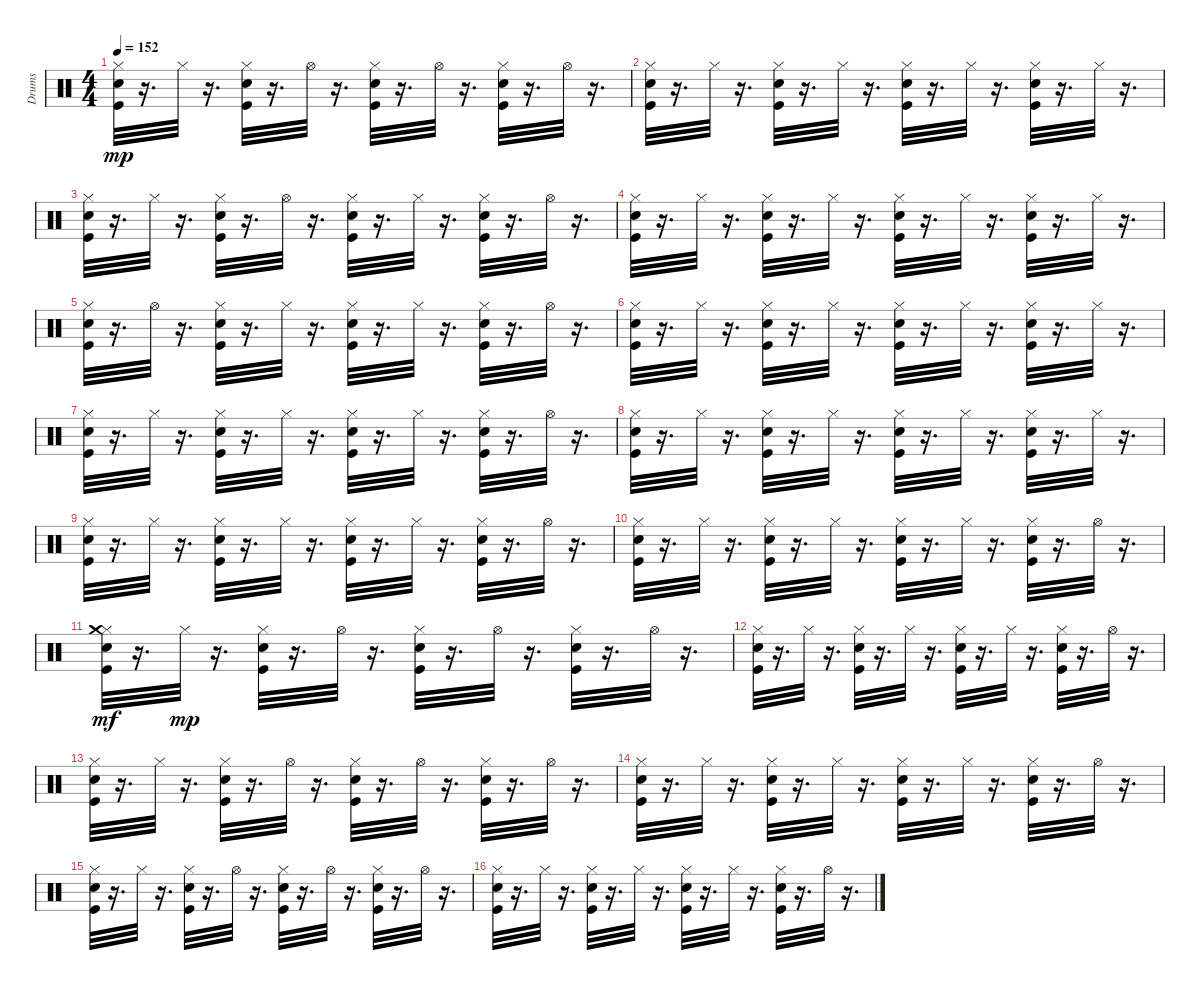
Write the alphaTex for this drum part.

\track ("Drums   " "Drums   ") {instrument percussion}
\staff {score}
\articulation defaults
\ts (4 4)
\tempo 152
\clef neutral
\ks c
("Snare (hit) 2" "Hi-Hat (closed)" "Kick (hit)").32{dy mp} r.16{d} "Hi-Hat (closed)".32 r.16{d} ("Snare (hit) 2" "Hi-Hat (closed)" "Kick (hit)").32 r.16{d} "Hi-Hat (open)".32 r.16{d} ("Snare (hit) 2" "Hi-Hat (closed)" "Kick (hit)").32 r.16{d} "Hi-Hat (open)".32 r.16{d} ("Snare (hit) 2" "Hi-Hat (closed)" "Kick (hit)").32 r.16{d} "Hi-Hat (open)".32 r.16{d} |
("Snare (hit) 2" "Hi-Hat (closed)" "Kick (hit)").32 r.16{d} "Hi-Hat (closed)".32 r.16{d} ("Snare (hit) 2" "Hi-Hat (closed)" "Kick (hit)").32 r.16{d} "Hi-Hat (closed)".32 r.16{d} ("Snare (hit) 2" "Hi-Hat (closed)" "Kick (hit)").32 r.16{d} "Hi-Hat (closed)".32 r.16{d} ("Snare (hit) 2" "Hi-Hat (closed)" "Kick (hit)").32 r.16{d} "Hi-Hat (closed)".32 r.16{d} |
("Snare (hit) 2" "Hi-Hat (closed)" "Kick (hit)").32 r.16{d} "Hi-Hat (closed)".32 r.16{d} ("Snare (hit) 2" "Hi-Hat (closed)" "Kick (hit)").32 r.16{d} "Hi-Hat (open)".32 r.16{d} ("Snare (hit) 2" "Hi-Hat (closed)" "Kick (hit)").32 r.16{d} "Hi-Hat (closed)".32 r.16{d} ("Snare (hit) 2" "Hi-Hat (closed)" "Kick (hit)").32 r.16{d} "Hi-Hat (open)".32 r.16{d} |
("Snare (hit) 2" "Hi-Hat (closed)" "Kick (hit)").32 r.16{d} "Hi-Hat (closed)".32 r.16{d} ("Snare (hit) 2" "Hi-Hat (closed)" "Kick (hit)").32 r.16{d} "Hi-Hat (closed)".32 r.16{d} ("Snare (hit) 2" "Hi-Hat (closed)" "Kick (hit)").32 r.16{d} "Hi-Hat (closed)".32 r.16{d} ("Snare (hit) 2" "Hi-Hat (closed)" "Kick (hit)").32 r.16{d} "Hi-Hat (closed)".32 r.16{d} |
("Snare (hit) 2" "Hi-Hat (closed)" "Kick (hit)").32 r.16{d} "Hi-Hat (open)".32 r.16{d} ("Snare (hit) 2" "Hi-Hat (closed)" "Kick (hit)").32 r.16{d} "Hi-Hat (closed)".32 r.16{d} ("Snare (hit) 2" "Hi-Hat (closed)" "Kick (hit)").32 r.16{d} "Hi-Hat (closed)".32 r.16{d} ("Snare (hit) 2" "Hi-Hat (closed)" "Kick (hit)").32 r.16{d} "Hi-Hat (open)".32 r.16{d} |
("Snare (hit) 2" "Hi-Hat (closed)" "Kick (hit)").32 r.16{d} "Hi-Hat (closed)".32 r.16{d} ("Snare (hit) 2" "Hi-Hat (closed)" "Kick (hit)").32 r.16{d} "Hi-Hat (closed)".32 r.16{d} ("Snare (hit) 2" "Hi-Hat (closed)" "Kick (hit)").32 r.16{d} "Hi-Hat (closed)".32 r.16{d} ("Snare (hit) 2" "Hi-Hat (closed)" "Kick (hit)").32 r.16{d} "Hi-Hat (closed)".32 r.16{d} |
("Snare (hit) 2" "Hi-Hat (closed)" "Kick (hit)").32 r.16{d} "Hi-Hat (closed)".32 r.16{d} ("Snare (hit) 2" "Hi-Hat (closed)" "Kick (hit)").32 r.16{d} "Hi-Hat (closed)".32 r.16{d} ("Snare (hit) 2" "Hi-Hat (closed)" "Kick (hit)").32 r.16{d} "Hi-Hat (closed)".32 r.16{d} ("Snare (hit) 2" "Hi-Hat (closed)" "Kick (hit)").32 r.16{d} "Hi-Hat (open)".32 r.16{d} |
("Snare (hit) 2" "Hi-Hat (closed)" "Kick (hit)").32 r.16{d} "Hi-Hat (closed)".32 r.16{d} ("Snare (hit) 2" "Hi-Hat (closed)" "Kick (hit)").32 r.16{d} "Hi-Hat (closed)".32 r.16{d} ("Snare (hit) 2" "Hi-Hat (closed)" "Kick (hit)").32 r.16{d} "Hi-Hat (closed)".32 r.16{d} ("Snare (hit) 2" "Hi-Hat (closed)" "Kick (hit)").32 r.16{d} "Hi-Hat (closed)".32 r.16{d} |
("Snare (hit) 2" "Hi-Hat (closed)" "Kick (hit)").32 r.16{d} "Hi-Hat (closed)".32 r.16{d} ("Snare (hit) 2" "Hi-Hat (closed)" "Kick (hit)").32 r.16{d} "Hi-Hat (closed)".32 r.16{d} ("Snare (hit) 2" "Hi-Hat (closed)" "Kick (hit)").32 r.16{d} "Hi-Hat (closed)".32 r.16{d} ("Snare (hit) 2" "Hi-Hat (closed)" "Kick (hit)").32 r.16{d} "Hi-Hat (open)".32 r.16{d} |
("Snare (hit) 2" "Hi-Hat (closed)" "Kick (hit)").32 r.16{d} "Hi-Hat (closed)".32 r.16{d} ("Snare (hit) 2" "Hi-Hat (closed)" "Kick (hit)").32 r.16{d} "Hi-Hat (closed)".32 r.16{d} ("Snare (hit) 2" "Hi-Hat (closed)" "Kick (hit)").32 r.16{d} "Hi-Hat (closed)".32 r.16{d} ("Snare (hit) 2" "Hi-Hat (closed)" "Kick (hit)").32 r.16{d} "Hi-Hat (open)".32 r.16{d} |
("Snare (hit) 2" "Hi-Hat (closed)" "Kick (hit)" "Crash medium (hit)").32{dy mf} r.16{d} "Hi-Hat (closed)".32{dy mp} r.16{d} ("Snare (hit) 2" "Hi-Hat (closed)" "Kick (hit)").32 r.16{d} "Hi-Hat (open)".32 r.16{d} ("Snare (hit) 2" "Hi-Hat (closed)" "Kick (hit)").32 r.16{d} "Hi-Hat (open)".32 r.16{d} ("Snare (hit) 2" "Hi-Hat (closed)" "Kick (hit)").32 r.16{d} "Hi-Hat (open)".32 r.16{d} |
("Snare (hit) 2" "Hi-Hat (closed)" "Kick (hit)").32 r.16{d} "Hi-Hat (closed)".32 r.16{d} ("Snare (hit) 2" "Hi-Hat (closed)" "Kick (hit)").32 r.16{d} "Hi-Hat (closed)".32 r.16{d} ("Snare (hit) 2" "Hi-Hat (closed)" "Kick (hit)").32 r.16{d} "Hi-Hat (closed)".32 r.16{d} ("Snare (hit) 2" "Hi-Hat (closed)" "Kick (hit)").32 r.16{d} "Hi-Hat (open)".32 r.16{d} |
("Snare (hit) 2" "Hi-Hat (closed)" "Kick (hit)").32 r.16{d} "Hi-Hat (closed)".32 r.16{d} ("Snare (hit) 2" "Hi-Hat (closed)" "Kick (hit)").32 r.16{d} "Hi-Hat (open)".32 r.16{d} ("Snare (hit) 2" "Hi-Hat (closed)" "Kick (hit)").32 r.16{d} "Hi-Hat (open)".32 r.16{d} ("Snare (hit) 2" "Hi-Hat (closed)" "Kick (hit)").32 r.16{d} "Hi-Hat (open)".32 r.16{d} |
("Snare (hit) 2" "Hi-Hat (closed)" "Kick (hit)").32 r.16{d} "Hi-Hat (closed)".32 r.16{d} ("Snare (hit) 2" "Hi-Hat (closed)" "Kick (hit)").32 r.16{d} "Hi-Hat (closed)".32 r.16{d} ("Snare (hit) 2" "Hi-Hat (closed)" "Kick (hit)").32 r.16{d} "Hi-Hat (closed)".32 r.16{d} ("Snare (hit) 2" "Hi-Hat (closed)" "Kick (hit)").32 r.16{d} "Hi-Hat (open)".32 r.16{d} |
("Snare (hit) 2" "Hi-Hat (closed)" "Kick (hit)").32 r.16{d} "Hi-Hat (closed)".32 r.16{d} ("Snare (hit) 2" "Hi-Hat (closed)" "Kick (hit)").32 r.16{d} "Hi-Hat (open)".32 r.16{d} ("Snare (hit) 2" "Hi-Hat (closed)" "Kick (hit)").32 r.16{d} "Hi-Hat (open)".32 r.16{d} ("Snare (hit) 2" "Hi-Hat (closed)" "Kick (hit)").32 r.16{d} "Hi-Hat (open)".32 r.16{d} |
("Snare (hit) 2" "Hi-Hat (closed)" "Kick (hit)").32 r.16{d} "Hi-Hat (closed)".32 r.16{d} ("Snare (hit) 2" "Hi-Hat (closed)" "Kick (hit)").32 r.16{d} "Hi-Hat (closed)".32 r.16{d} ("Snare (hit) 2" "Hi-Hat (closed)" "Kick (hit)").32 r.16{d} "Hi-Hat (closed)".32 r.16{d} ("Snare (hit) 2" "Hi-Hat (closed)" "Kick (hit)").32 r.16{d} "Hi-Hat (open)".32 r.16{d}
